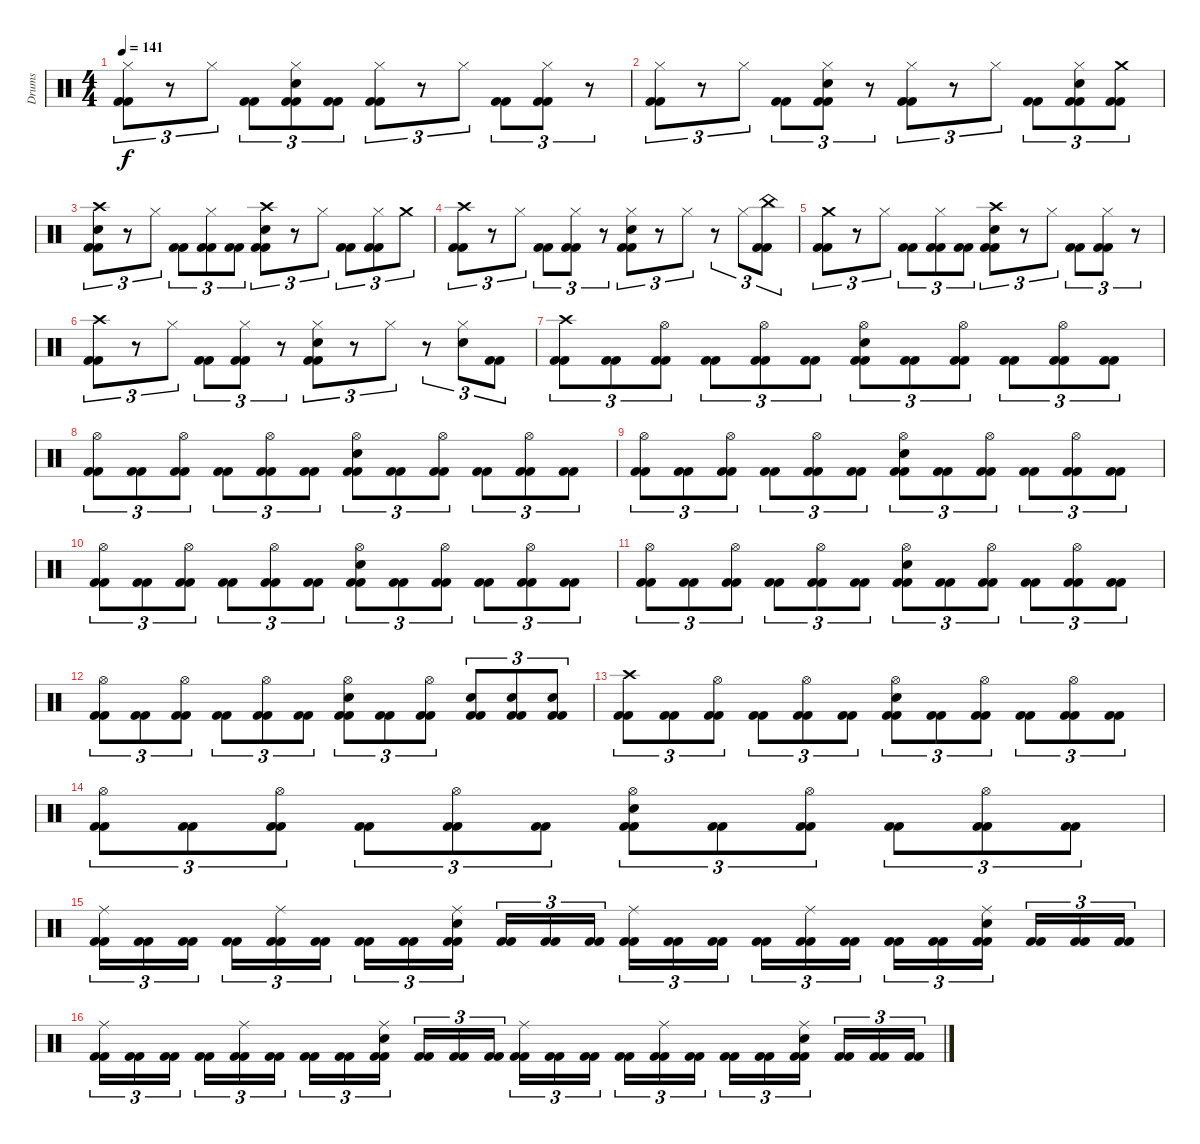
\track ("Drums" "Drums") {instrument percussion}
\staff {score}
\articulation defaults
\ts (4 4)
\tempo 141
\clef neutral
\ks c
("Hi-Hat (closed)" "Kick (hit) 2" "Kick (hit) 2").8{tu (3 2) dy f} r.8{tu (3 2)} "Hi-Hat (closed)".8{tu (3 2)} ("Kick (hit) 2" "Kick (hit) 2").8{tu (3 2)} ("Hi-Hat (closed)" "Snare (hit) 2" "Kick (hit) 2" "Kick (hit) 2").8{tu (3 2)} ("Kick (hit) 2" "Kick (hit) 2").8{tu (3 2)} ("Hi-Hat (closed)" "Kick (hit) 2" "Kick (hit) 2").8{tu (3 2)} r.8{tu (3 2)} "Hi-Hat (closed)".8{tu (3 2)} ("Kick (hit) 2" "Kick (hit) 2").8{tu (3 2)} ("Hi-Hat (closed)" "Kick (hit) 2" "Kick (hit) 2").8{tu (3 2)} r.8{tu (3 2)} |
("Hi-Hat (closed)" "Kick (hit) 2" "Kick (hit) 2").8{tu (3 2)} r.8{tu (3 2)} "Hi-Hat (closed)".8{tu (3 2)} ("Kick (hit) 2" "Kick (hit) 2").8{tu (3 2)} ("Hi-Hat (closed)" "Snare (hit) 2" "Kick (hit) 2" "Kick (hit) 2").8{tu (3 2)} r.8{tu (3 2)} ("Hi-Hat (closed)" "Kick (hit) 2" "Kick (hit) 2").8{tu (3 2)} r.8{tu (3 2)} "Hi-Hat (closed)".8{tu (3 2)} ("Kick (hit) 2" "Kick (hit) 2").8{tu (3 2)} ("Hi-Hat (closed)" "Snare (hit) 2" "Kick (hit) 2" "Kick (hit) 2").8{tu (3 2)} ("Crash medium (hit)" "Kick (hit) 2" "Kick (hit) 2").8{tu (3 2)} |
("Crash high (hit)" "Snare (hit) 2" "Kick (hit) 2" "Kick (hit) 2").8{tu (3 2)} r.8{tu (3 2)} "Hi-Hat (closed)".8{tu (3 2)} ("Kick (hit) 2" "Kick (hit) 2").8{tu (3 2)} ("Hi-Hat (closed)" "Kick (hit) 2" "Kick (hit) 2").8{tu (3 2)} ("Kick (hit) 2" "Kick (hit) 2").8{tu (3 2)} ("Crash high (hit)" "Snare (hit) 2" "Kick (hit) 2" "Kick (hit) 2").8{tu (3 2)} r.8{tu (3 2)} "Hi-Hat (closed)".8{tu (3 2)} ("Kick (hit) 2" "Kick (hit) 2").8{tu (3 2)} ("Hi-Hat (closed)" "Kick (hit) 2" "Kick (hit) 2").8{tu (3 2)} "Crash medium (hit)".8{tu (3 2)} |
("Crash high (hit)" "Kick (hit) 2" "Kick (hit) 2").8{tu (3 2)} r.8{tu (3 2)} "Hi-Hat (closed)".8{tu (3 2)} ("Kick (hit) 2" "Kick (hit) 2").8{tu (3 2)} ("Hi-Hat (closed)" "Kick (hit) 2" "Kick (hit) 2").8{tu (3 2)} r.8{tu (3 2)} ("Hi-Hat (closed)" "Snare (hit) 2" "Kick (hit) 2" "Kick (hit) 2").8{tu (3 2)} r.8{tu (3 2)} "Hi-Hat (closed)".8{tu (3 2)} r.8{tu (3 2)} "Hi-Hat (closed)".8{tu (3 2)} ("China (hit)" "Kick (hit) 2" "Kick (hit) 2").8{tu (3 2)} |
("Crash medium (hit)" "Kick (hit) 2" "Kick (hit) 2").8{tu (3 2)} r.8{tu (3 2)} "Hi-Hat (closed)".8{tu (3 2)} ("Kick (hit) 2" "Kick (hit) 2").8{tu (3 2)} ("Hi-Hat (closed)" "Kick (hit) 2" "Kick (hit) 2").8{tu (3 2)} ("Kick (hit) 2" "Kick (hit) 2").8{tu (3 2)} ("Crash high (hit)" "Snare (hit) 2" "Kick (hit) 2" "Kick (hit) 2").8{tu (3 2)} r.8{tu (3 2)} "Hi-Hat (closed)".8{tu (3 2)} ("Kick (hit) 2" "Kick (hit) 2").8{tu (3 2)} ("Hi-Hat (closed)" "Kick (hit) 2" "Kick (hit) 2").8{tu (3 2)} r.8{tu (3 2)} |
("Crash high (hit)" "Kick (hit) 2" "Kick (hit) 2").8{tu (3 2)} r.8{tu (3 2)} "Hi-Hat (closed)".8{tu (3 2)} ("Kick (hit) 2" "Kick (hit) 2").8{tu (3 2)} ("Hi-Hat (closed)" "Kick (hit) 2" "Kick (hit) 2").8{tu (3 2)} r.8{tu (3 2)} ("Hi-Hat (closed)" "Snare (hit) 2" "Kick (hit) 2" "Kick (hit) 2").8{tu (3 2)} r.8{tu (3 2)} "Hi-Hat (closed)".8{tu (3 2)} r.8{tu (3 2)} ("Hi-Hat (closed)" "Snare (hit) 2").8{tu (3 2)} ("Kick (hit) 2" "Kick (hit) 2").8{tu (3 2)} |
("Crash high (hit)" "Kick (hit) 2" "Kick (hit) 2").8{tu (3 2)} ("Kick (hit) 2" "Kick (hit) 2").8{tu (3 2)} ("Hi-Hat (open)" "Kick (hit) 2" "Kick (hit) 2").8{tu (3 2)} ("Kick (hit) 2" "Kick (hit) 2").8{tu (3 2)} ("Hi-Hat (open)" "Kick (hit) 2" "Kick (hit) 2").8{tu (3 2)} ("Kick (hit) 2" "Kick (hit) 2").8{tu (3 2)} ("Hi-Hat (open)" "Snare (hit) 2" "Kick (hit) 2" "Kick (hit) 2").8{tu (3 2)} ("Kick (hit) 2" "Kick (hit) 2").8{tu (3 2)} ("Hi-Hat (open)" "Kick (hit) 2" "Kick (hit) 2").8{tu (3 2)} ("Kick (hit) 2" "Kick (hit) 2").8{tu (3 2)} ("Hi-Hat (open)" "Kick (hit) 2" "Kick (hit) 2").8{tu (3 2)} ("Kick (hit) 2" "Kick (hit) 2").8{tu (3 2)} |
("Hi-Hat (open)" "Kick (hit) 2" "Kick (hit) 2").8{tu (3 2)} ("Kick (hit) 2" "Kick (hit) 2").8{tu (3 2)} ("Hi-Hat (open)" "Kick (hit) 2" "Kick (hit) 2").8{tu (3 2)} ("Kick (hit) 2" "Kick (hit) 2").8{tu (3 2)} ("Hi-Hat (open)" "Kick (hit) 2" "Kick (hit) 2").8{tu (3 2)} ("Kick (hit) 2" "Kick (hit) 2").8{tu (3 2)} ("Hi-Hat (open)" "Snare (hit) 2" "Kick (hit) 2" "Kick (hit) 2").8{tu (3 2)} ("Kick (hit) 2" "Kick (hit) 2").8{tu (3 2)} ("Hi-Hat (open)" "Kick (hit) 2" "Kick (hit) 2").8{tu (3 2)} ("Kick (hit) 2" "Kick (hit) 2").8{tu (3 2)} ("Hi-Hat (open)" "Kick (hit) 2" "Kick (hit) 2").8{tu (3 2)} ("Kick (hit) 2" "Kick (hit) 2").8{tu (3 2)} |
("Hi-Hat (open)" "Kick (hit) 2" "Kick (hit) 2").8{tu (3 2)} ("Kick (hit) 2" "Kick (hit) 2").8{tu (3 2)} ("Hi-Hat (open)" "Kick (hit) 2" "Kick (hit) 2").8{tu (3 2)} ("Kick (hit) 2" "Kick (hit) 2").8{tu (3 2)} ("Hi-Hat (open)" "Kick (hit) 2" "Kick (hit) 2").8{tu (3 2)} ("Kick (hit) 2" "Kick (hit) 2").8{tu (3 2)} ("Hi-Hat (open)" "Snare (hit) 2" "Kick (hit) 2" "Kick (hit) 2").8{tu (3 2)} ("Kick (hit) 2" "Kick (hit) 2").8{tu (3 2)} ("Hi-Hat (open)" "Kick (hit) 2" "Kick (hit) 2").8{tu (3 2)} ("Kick (hit) 2" "Kick (hit) 2").8{tu (3 2)} ("Hi-Hat (open)" "Kick (hit) 2" "Kick (hit) 2").8{tu (3 2)} ("Kick (hit) 2" "Kick (hit) 2").8{tu (3 2)} |
("Hi-Hat (open)" "Kick (hit) 2" "Kick (hit) 2").8{tu (3 2)} ("Kick (hit) 2" "Kick (hit) 2").8{tu (3 2)} ("Hi-Hat (open)" "Kick (hit) 2" "Kick (hit) 2").8{tu (3 2)} ("Kick (hit) 2" "Kick (hit) 2").8{tu (3 2)} ("Hi-Hat (open)" "Kick (hit) 2" "Kick (hit) 2").8{tu (3 2)} ("Kick (hit) 2" "Kick (hit) 2").8{tu (3 2)} ("Hi-Hat (open)" "Snare (hit) 2" "Kick (hit) 2" "Kick (hit) 2").8{tu (3 2)} ("Kick (hit) 2" "Kick (hit) 2").8{tu (3 2)} ("Hi-Hat (open)" "Kick (hit) 2" "Kick (hit) 2").8{tu (3 2)} ("Kick (hit) 2" "Kick (hit) 2").8{tu (3 2)} ("Hi-Hat (open)" "Kick (hit) 2" "Kick (hit) 2").8{tu (3 2)} ("Kick (hit) 2" "Kick (hit) 2").8{tu (3 2)} |
("Hi-Hat (open)" "Kick (hit) 2" "Kick (hit) 2").8{tu (3 2)} ("Kick (hit) 2" "Kick (hit) 2").8{tu (3 2)} ("Hi-Hat (open)" "Kick (hit) 2" "Kick (hit) 2").8{tu (3 2)} ("Kick (hit) 2" "Kick (hit) 2").8{tu (3 2)} ("Hi-Hat (open)" "Kick (hit) 2" "Kick (hit) 2").8{tu (3 2)} ("Kick (hit) 2" "Kick (hit) 2").8{tu (3 2)} ("Hi-Hat (open)" "Snare (hit) 2" "Kick (hit) 2" "Kick (hit) 2").8{tu (3 2)} ("Kick (hit) 2" "Kick (hit) 2").8{tu (3 2)} ("Hi-Hat (open)" "Kick (hit) 2" "Kick (hit) 2").8{tu (3 2)} ("Kick (hit) 2" "Kick (hit) 2").8{tu (3 2)} ("Hi-Hat (open)" "Kick (hit) 2" "Kick (hit) 2").8{tu (3 2)} ("Kick (hit) 2" "Kick (hit) 2").8{tu (3 2)} |
("Hi-Hat (open)" "Kick (hit) 2" "Kick (hit) 2").8{tu (3 2)} ("Kick (hit) 2" "Kick (hit) 2").8{tu (3 2)} ("Hi-Hat (open)" "Kick (hit) 2" "Kick (hit) 2").8{tu (3 2)} ("Kick (hit) 2" "Kick (hit) 2").8{tu (3 2)} ("Hi-Hat (open)" "Kick (hit) 2" "Kick (hit) 2").8{tu (3 2)} ("Kick (hit) 2" "Kick (hit) 2").8{tu (3 2)} ("Hi-Hat (open)" "Snare (hit) 2" "Kick (hit) 2" "Kick (hit) 2").8{tu (3 2)} ("Kick (hit) 2" "Kick (hit) 2").8{tu (3 2)} ("Hi-Hat (open)" "Kick (hit) 2" "Kick (hit) 2").8{tu (3 2)} ("Snare (hit) 2" "Kick (hit) 2" "Kick (hit) 2").8{tu (3 2)} ("Snare (hit) 2" "Kick (hit) 2" "Kick (hit) 2").8{tu (3 2)} ("Snare (hit) 2" "Kick (hit) 2" "Kick (hit) 2").8{tu (3 2)} |
("Crash high (hit)" "Kick (hit) 2" "Kick (hit) 2").8{tu (3 2)} ("Kick (hit) 2" "Kick (hit) 2").8{tu (3 2)} ("Hi-Hat (open)" "Kick (hit) 2" "Kick (hit) 2").8{tu (3 2)} ("Kick (hit) 2" "Kick (hit) 2").8{tu (3 2)} ("Hi-Hat (open)" "Kick (hit) 2" "Kick (hit) 2").8{tu (3 2)} ("Kick (hit) 2" "Kick (hit) 2").8{tu (3 2)} ("Hi-Hat (open)" "Snare (hit) 2" "Kick (hit) 2" "Kick (hit) 2").8{tu (3 2)} ("Kick (hit) 2" "Kick (hit) 2").8{tu (3 2)} ("Hi-Hat (open)" "Kick (hit) 2" "Kick (hit) 2").8{tu (3 2)} ("Kick (hit) 2" "Kick (hit) 2").8{tu (3 2)} ("Hi-Hat (open)" "Kick (hit) 2" "Kick (hit) 2").8{tu (3 2)} ("Kick (hit) 2" "Kick (hit) 2").8{tu (3 2)} |
("Hi-Hat (open)" "Kick (hit) 2" "Kick (hit) 2").8{tu (3 2)} ("Kick (hit) 2" "Kick (hit) 2").8{tu (3 2)} ("Hi-Hat (open)" "Kick (hit) 2" "Kick (hit) 2").8{tu (3 2)} ("Kick (hit) 2" "Kick (hit) 2").8{tu (3 2)} ("Hi-Hat (open)" "Kick (hit) 2" "Kick (hit) 2").8{tu (3 2)} ("Kick (hit) 2" "Kick (hit) 2").8{tu (3 2)} ("Hi-Hat (open)" "Snare (hit) 2" "Kick (hit) 2" "Kick (hit) 2").8{tu (3 2)} ("Kick (hit) 2" "Kick (hit) 2").8{tu (3 2)} ("Hi-Hat (open)" "Kick (hit) 2" "Kick (hit) 2").8{tu (3 2)} ("Kick (hit) 2" "Kick (hit) 2").8{tu (3 2)} ("Hi-Hat (open)" "Kick (hit) 2" "Kick (hit) 2").8{tu (3 2)} ("Kick (hit) 2" "Kick (hit) 2").8{tu (3 2)} |
("Ride (middle)" "Kick (hit) 2" "Kick (hit) 2").16{tu (3 2)} ("Kick (hit) 2" "Kick (hit) 2").16{tu (3 2)} ("Kick (hit) 2" "Kick (hit) 2").16{tu (3 2)} ("Kick (hit) 2" "Kick (hit) 2").16{tu (3 2)} ("Ride (middle)" "Kick (hit) 2" "Kick (hit) 2").16{tu (3 2)} ("Kick (hit) 2" "Kick (hit) 2").16{tu (3 2)} ("Kick (hit) 2" "Kick (hit) 2").16{tu (3 2)} ("Kick (hit) 2" "Kick (hit) 2").16{tu (3 2)} ("Ride (middle)" "Snare (hit) 2" "Kick (hit) 2" "Kick (hit) 2").16{tu (3 2)} ("Kick (hit) 2" "Kick (hit) 2").16{tu (3 2)} ("Kick (hit) 2" "Kick (hit) 2").16{tu (3 2)} ("Kick (hit) 2" "Kick (hit) 2").16{tu (3 2)} ("Ride (middle)" "Kick (hit) 2" "Kick (hit) 2").16{tu (3 2)} ("Kick (hit) 2" "Kick (hit) 2").16{tu (3 2)} ("Kick (hit) 2" "Kick (hit) 2").16{tu (3 2)} ("Kick (hit) 2" "Kick (hit) 2").16{tu (3 2)} ("Ride (middle)" "Kick (hit) 2" "Kick (hit) 2").16{tu (3 2)} ("Kick (hit) 2" "Kick (hit) 2").16{tu (3 2)} ("Kick (hit) 2" "Kick (hit) 2").16{tu (3 2)} ("Kick (hit) 2" "Kick (hit) 2").16{tu (3 2)} ("Ride (middle)" "Snare (hit) 2" "Kick (hit) 2" "Kick (hit) 2").16{tu (3 2)} ("Kick (hit) 2" "Kick (hit) 2").16{tu (3 2)} ("Kick (hit) 2" "Kick (hit) 2").16{tu (3 2)} ("Kick (hit) 2" "Kick (hit) 2").16{tu (3 2)} |
("Ride (middle)" "Kick (hit) 2" "Kick (hit) 2").16{tu (3 2)} ("Kick (hit) 2" "Kick (hit) 2").16{tu (3 2)} ("Kick (hit) 2" "Kick (hit) 2").16{tu (3 2)} ("Kick (hit) 2" "Kick (hit) 2").16{tu (3 2)} ("Ride (middle)" "Kick (hit) 2" "Kick (hit) 2").16{tu (3 2)} ("Kick (hit) 2" "Kick (hit) 2").16{tu (3 2)} ("Kick (hit) 2" "Kick (hit) 2").16{tu (3 2)} ("Kick (hit) 2" "Kick (hit) 2").16{tu (3 2)} ("Ride (middle)" "Snare (hit) 2" "Kick (hit) 2" "Kick (hit) 2").16{tu (3 2)} ("Kick (hit) 2" "Kick (hit) 2").16{tu (3 2)} ("Kick (hit) 2" "Kick (hit) 2").16{tu (3 2)} ("Kick (hit) 2" "Kick (hit) 2").16{tu (3 2)} ("Ride (middle)" "Kick (hit) 2" "Kick (hit) 2").16{tu (3 2)} ("Kick (hit) 2" "Kick (hit) 2").16{tu (3 2)} ("Kick (hit) 2" "Kick (hit) 2").16{tu (3 2)} ("Kick (hit) 2" "Kick (hit) 2").16{tu (3 2)} ("Ride (middle)" "Kick (hit) 2" "Kick (hit) 2").16{tu (3 2)} ("Kick (hit) 2" "Kick (hit) 2").16{tu (3 2)} ("Kick (hit) 2" "Kick (hit) 2").16{tu (3 2)} ("Kick (hit) 2" "Kick (hit) 2").16{tu (3 2)} ("Ride (middle)" "Snare (hit) 2" "Kick (hit) 2" "Kick (hit) 2").16{tu (3 2)} ("Kick (hit) 2" "Kick (hit) 2").16{tu (3 2)} ("Kick (hit) 2" "Kick (hit) 2").16{tu (3 2)} ("Kick (hit) 2" "Kick (hit) 2").16{tu (3 2)}
